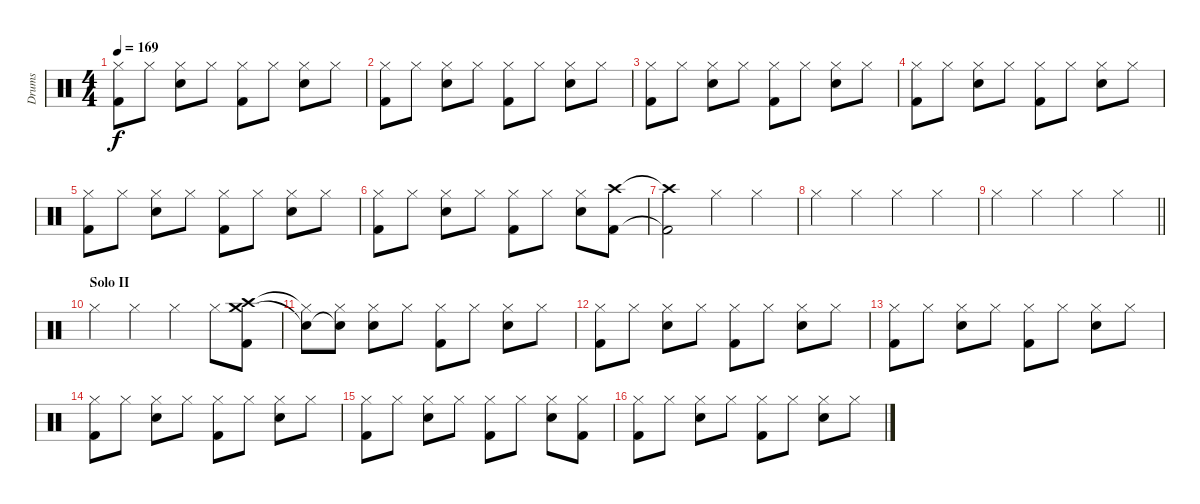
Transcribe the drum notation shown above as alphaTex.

\track ("Drums" "Drums") {instrument percussion}
\staff {score}
\articulation defaults
\ts (4 4)
\tempo 169
\clef neutral
\ks c
("Hi-Hat (closed)" "Kick (hit) 2").8{dy f} "Hi-Hat (closed)".8 ("Hi-Hat (closed)" "Snare (hit) 2").8 "Hi-Hat (closed)".8 ("Hi-Hat (closed)" "Kick (hit) 2").8 "Hi-Hat (closed)".8 ("Hi-Hat (closed)" "Snare (hit) 2").8 "Hi-Hat (closed)".8 |
("Hi-Hat (closed)" "Kick (hit) 2").8 "Hi-Hat (closed)".8 ("Hi-Hat (closed)" "Snare (hit) 2").8 "Hi-Hat (closed)".8 ("Hi-Hat (closed)" "Kick (hit) 2").8 "Hi-Hat (closed)".8 ("Hi-Hat (closed)" "Snare (hit) 2").8 "Hi-Hat (closed)".8 |
("Hi-Hat (closed)" "Kick (hit) 2").8 "Hi-Hat (closed)".8 ("Hi-Hat (closed)" "Snare (hit) 2").8 "Hi-Hat (closed)".8 ("Hi-Hat (closed)" "Kick (hit) 2").8 "Hi-Hat (closed)".8 ("Hi-Hat (closed)" "Snare (hit) 2").8 "Hi-Hat (closed)".8 |
("Hi-Hat (closed)" "Kick (hit) 2").8 "Hi-Hat (closed)".8 ("Hi-Hat (closed)" "Snare (hit) 2").8 "Hi-Hat (closed)".8 ("Hi-Hat (closed)" "Kick (hit) 2").8 "Hi-Hat (closed)".8 ("Hi-Hat (closed)" "Snare (hit) 2").8 "Hi-Hat (closed)".8 |
("Hi-Hat (closed)" "Kick (hit) 2").8 "Hi-Hat (closed)".8 ("Hi-Hat (closed)" "Snare (hit) 2").8 "Hi-Hat (closed)".8 ("Hi-Hat (closed)" "Kick (hit) 2").8 "Hi-Hat (closed)".8 ("Hi-Hat (closed)" "Snare (hit) 2").8 "Hi-Hat (closed)".8 |
("Hi-Hat (closed)" "Kick (hit) 2").8 "Hi-Hat (closed)".8 ("Hi-Hat (closed)" "Snare (hit) 2").8 "Hi-Hat (closed)".8 ("Hi-Hat (closed)" "Kick (hit) 2").8 "Hi-Hat (closed)".8 ("Hi-Hat (closed)" "Snare (hit) 2").8 ("Crash high (hit)" "Kick (hit) 2").8 |
("Crash high (hit)"{t} "Kick (hit) 2"{t}).2 "Hi-Hat (closed)".4 "Hi-Hat (closed)".4 |
"Hi-Hat (closed)".4 "Hi-Hat (closed)".4 "Hi-Hat (closed)".4 "Hi-Hat (closed)".4 |
\barLineRight lightlight "Hi-Hat (closed)".4 "Hi-Hat (closed)".4 "Hi-Hat (closed)".4 "Hi-Hat (closed)".4
|
\section ("" "Solo II")
"Hi-Hat (closed)".4 "Hi-Hat (closed)".4 "Hi-Hat (closed)".4 "Hi-Hat (closed)".8 ("Crash high (hit)" "Crash medium (hit)" "Kick (hit) 2").8 |
("Hi-Hat (closed)"{t} "Snare (hit)"{t}).8 ("Hi-Hat (closed)" "Snare (hit)"{t}).8 ("Hi-Hat (closed)" "Snare (hit) 2").8 "Hi-Hat (closed)".8 ("Hi-Hat (closed)" "Kick (hit) 2").8 "Hi-Hat (closed)".8 ("Hi-Hat (closed)" "Snare (hit) 2").8 "Hi-Hat (closed)".8 |
("Hi-Hat (closed)" "Kick (hit) 2").8 "Hi-Hat (closed)".8 ("Hi-Hat (closed)" "Snare (hit) 2").8 "Hi-Hat (closed)".8 ("Hi-Hat (closed)" "Kick (hit) 2").8 "Hi-Hat (closed)".8 ("Hi-Hat (closed)" "Snare (hit) 2").8 "Hi-Hat (closed)".8 |
("Hi-Hat (closed)" "Kick (hit) 2").8 "Hi-Hat (closed)".8 ("Hi-Hat (closed)" "Snare (hit) 2").8 "Hi-Hat (closed)".8 ("Hi-Hat (closed)" "Kick (hit) 2").8 "Hi-Hat (closed)".8 ("Hi-Hat (closed)" "Snare (hit) 2").8 "Hi-Hat (closed)".8 |
("Hi-Hat (closed)" "Kick (hit) 2").8 "Hi-Hat (closed)".8 ("Hi-Hat (closed)" "Snare (hit) 2").8 "Hi-Hat (closed)".8 ("Hi-Hat (closed)" "Kick (hit) 2").8 "Hi-Hat (closed)".8 ("Hi-Hat (closed)" "Snare (hit) 2").8 "Hi-Hat (closed)".8 |
("Hi-Hat (closed)" "Kick (hit) 2").8 "Hi-Hat (closed)".8 ("Hi-Hat (closed)" "Snare (hit) 2").8 "Hi-Hat (closed)".8 ("Hi-Hat (closed)" "Kick (hit) 2").8 "Hi-Hat (closed)".8 ("Hi-Hat (closed)" "Snare (hit) 2").8 ("Hi-Hat (closed)" "Kick (hit) 2").8 |
("Hi-Hat (closed)" "Kick (hit) 2").8 "Hi-Hat (closed)".8 ("Hi-Hat (closed)" "Snare (hit) 2").8 "Hi-Hat (closed)".8 ("Hi-Hat (closed)" "Kick (hit) 2").8 "Hi-Hat (closed)".8 ("Hi-Hat (closed)" "Snare (hit) 2").8 "Hi-Hat (closed)".8
